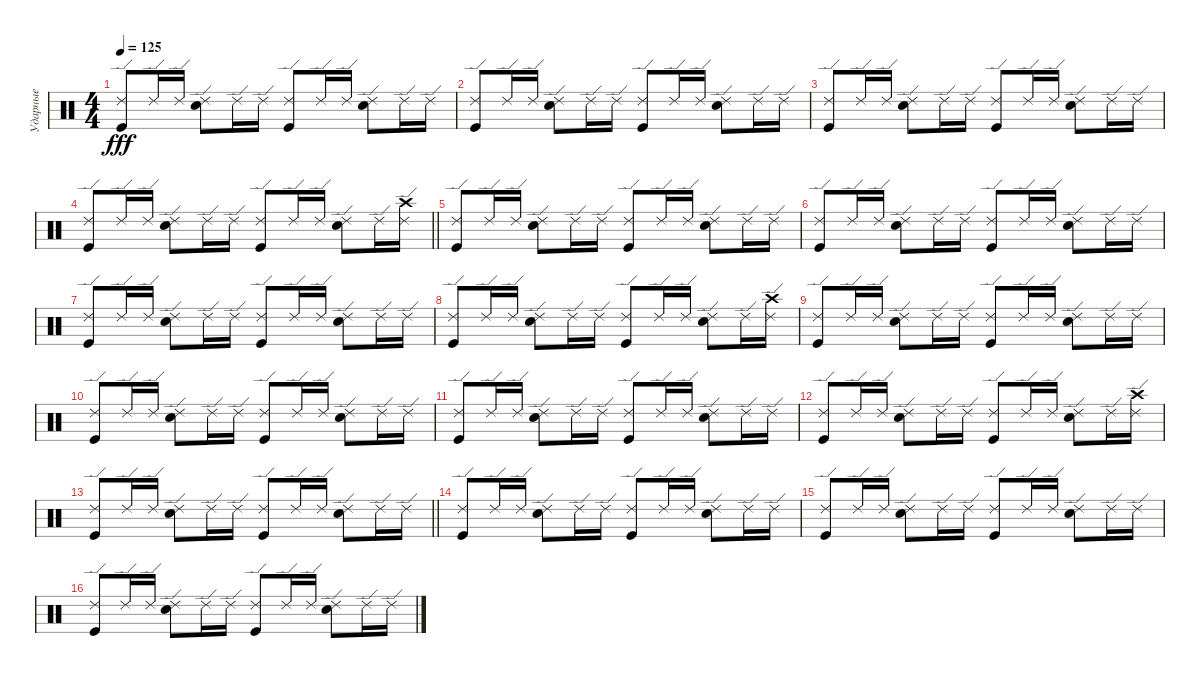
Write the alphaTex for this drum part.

\track ("Ударные" "Ударные") {instrument percussion}
\staff {score}
\articulation defaults
\ts (4 4)
\tempo 125
\clef neutral
\ks c
("Ride (edge) 2" "Kick (hit)").8{dy fff} "Ride (edge) 2".16 "Ride (edge) 2".16 ("Ride (edge) 2" "Snare (hit) 2").8 "Ride (edge) 2".16 "Ride (edge) 2".16 ("Ride (edge) 2" "Kick (hit)").8 "Ride (edge) 2".16 "Ride (edge) 2".16 ("Ride (edge) 2" "Snare (hit) 2").8 "Ride (edge) 2".16 "Ride (edge) 2".16 |
("Ride (edge) 2" "Kick (hit)").8 "Ride (edge) 2".16 "Ride (edge) 2".16 ("Ride (edge) 2" "Snare (hit) 2").8 "Ride (edge) 2".16 "Ride (edge) 2".16 ("Ride (edge) 2" "Kick (hit)").8 "Ride (edge) 2".16 "Ride (edge) 2".16 ("Ride (edge) 2" "Snare (hit) 2").8 "Ride (edge) 2".16 "Ride (edge) 2".16 |
("Ride (edge) 2" "Kick (hit)").8 "Ride (edge) 2".16 "Ride (edge) 2".16 ("Ride (edge) 2" "Snare (hit) 2").8 "Ride (edge) 2".16 "Ride (edge) 2".16 ("Ride (edge) 2" "Kick (hit)").8 "Ride (edge) 2".16 "Ride (edge) 2".16 ("Ride (edge) 2" "Snare (hit) 2").8 "Ride (edge) 2".16 "Ride (edge) 2".16 |
\barLineRight lightlight
("Ride (edge) 2" "Kick (hit)").8 "Ride (edge) 2".16 "Ride (edge) 2".16 ("Ride (edge) 2" "Snare (hit) 2").8 "Ride (edge) 2".16 "Ride (edge) 2".16 ("Ride (edge) 2" "Kick (hit)").8 "Ride (edge) 2".16 "Ride (edge) 2".16 ("Ride (edge) 2" "Snare (hit) 2").8 "Ride (edge) 2".16 ("Ride (edge) 2" "Crash high (hit)").16 |
("Ride (edge) 2" "Kick (hit)").8 "Ride (edge) 2".16 "Ride (edge) 2".16 ("Ride (edge) 2" "Snare (hit) 2").8 "Ride (edge) 2".16 "Ride (edge) 2".16 ("Ride (edge) 2" "Kick (hit)").8 "Ride (edge) 2".16 "Ride (edge) 2".16 ("Ride (edge) 2" "Snare (hit) 2").8 "Ride (edge) 2".16 "Ride (edge) 2".16 |
("Ride (edge) 2" "Kick (hit)").8 "Ride (edge) 2".16 "Ride (edge) 2".16 ("Ride (edge) 2" "Snare (hit) 2").8 "Ride (edge) 2".16 "Ride (edge) 2".16 ("Ride (edge) 2" "Kick (hit)").8 "Ride (edge) 2".16 "Ride (edge) 2".16 ("Ride (edge) 2" "Snare (hit) 2").8 "Ride (edge) 2".16 "Ride (edge) 2".16 |
("Ride (edge) 2" "Kick (hit)").8 "Ride (edge) 2".16 "Ride (edge) 2".16 ("Ride (edge) 2" "Snare (hit) 2").8 "Ride (edge) 2".16 "Ride (edge) 2".16 ("Ride (edge) 2" "Kick (hit)").8 "Ride (edge) 2".16 "Ride (edge) 2".16 ("Ride (edge) 2" "Snare (hit) 2").8 "Ride (edge) 2".16 "Ride (edge) 2".16 |
("Ride (edge) 2" "Kick (hit)").8 "Ride (edge) 2".16 "Ride (edge) 2".16 ("Ride (edge) 2" "Snare (hit) 2").8 "Ride (edge) 2".16 "Ride (edge) 2".16 ("Ride (edge) 2" "Kick (hit)").8 "Ride (edge) 2".16 "Ride (edge) 2".16 ("Ride (edge) 2" "Snare (hit) 2").8 "Ride (edge) 2".16 ("Ride (edge) 2" "Crash high (hit)").16 |
("Ride (edge) 2" "Kick (hit)").8 "Ride (edge) 2".16 "Ride (edge) 2".16 ("Ride (edge) 2" "Snare (hit) 2").8 "Ride (edge) 2".16 "Ride (edge) 2".16 ("Ride (edge) 2" "Kick (hit)").8 "Ride (edge) 2".16 "Ride (edge) 2".16 ("Ride (edge) 2" "Snare (hit) 2").8 "Ride (edge) 2".16 "Ride (edge) 2".16 |
("Ride (edge) 2" "Kick (hit)").8 "Ride (edge) 2".16 "Ride (edge) 2".16 ("Ride (edge) 2" "Snare (hit) 2").8 "Ride (edge) 2".16 "Ride (edge) 2".16 ("Ride (edge) 2" "Kick (hit)").8 "Ride (edge) 2".16 "Ride (edge) 2".16 ("Ride (edge) 2" "Snare (hit) 2").8 "Ride (edge) 2".16 "Ride (edge) 2".16 |
("Ride (edge) 2" "Kick (hit)").8 "Ride (edge) 2".16 "Ride (edge) 2".16 ("Ride (edge) 2" "Snare (hit) 2").8 "Ride (edge) 2".16 "Ride (edge) 2".16 ("Ride (edge) 2" "Kick (hit)").8 "Ride (edge) 2".16 "Ride (edge) 2".16 ("Ride (edge) 2" "Snare (hit) 2").8 "Ride (edge) 2".16 "Ride (edge) 2".16 |
("Ride (edge) 2" "Kick (hit)").8 "Ride (edge) 2".16 "Ride (edge) 2".16 ("Ride (edge) 2" "Snare (hit) 2").8 "Ride (edge) 2".16 "Ride (edge) 2".16 ("Ride (edge) 2" "Kick (hit)").8 "Ride (edge) 2".16 "Ride (edge) 2".16 ("Ride (edge) 2" "Snare (hit) 2").8 "Ride (edge) 2".16 ("Ride (edge) 2" "Crash high (hit)").16 |
\barLineRight lightlight
("Ride (edge) 2" "Kick (hit)").8 "Ride (edge) 2".16 "Ride (edge) 2".16 ("Ride (edge) 2" "Snare (hit) 2").8 "Ride (edge) 2".16 "Ride (edge) 2".16 ("Ride (edge) 2" "Kick (hit)").8 "Ride (edge) 2".16 "Ride (edge) 2".16 ("Ride (edge) 2" "Snare (hit) 2").8 "Ride (edge) 2".16 "Ride (edge) 2".16 |
("Ride (edge) 2" "Kick (hit)").8 "Ride (edge) 2".16 "Ride (edge) 2".16 ("Ride (edge) 2" "Snare (hit) 2").8 "Ride (edge) 2".16 "Ride (edge) 2".16 ("Ride (edge) 2" "Kick (hit)").8 "Ride (edge) 2".16 "Ride (edge) 2".16 ("Ride (edge) 2" "Snare (hit) 2").8 "Ride (edge) 2".16 "Ride (edge) 2".16 |
("Ride (edge) 2" "Kick (hit)").8 "Ride (edge) 2".16 "Ride (edge) 2".16 ("Ride (edge) 2" "Snare (hit) 2").8 "Ride (edge) 2".16 "Ride (edge) 2".16 ("Ride (edge) 2" "Kick (hit)").8 "Ride (edge) 2".16 "Ride (edge) 2".16 ("Ride (edge) 2" "Snare (hit) 2").8 "Ride (edge) 2".16 "Ride (edge) 2".16 |
("Ride (edge) 2" "Kick (hit)").8 "Ride (edge) 2".16 "Ride (edge) 2".16 ("Ride (edge) 2" "Snare (hit) 2").8 "Ride (edge) 2".16 "Ride (edge) 2".16 ("Ride (edge) 2" "Kick (hit)").8 "Ride (edge) 2".16 "Ride (edge) 2".16 ("Ride (edge) 2" "Snare (hit) 2").8 "Ride (edge) 2".16 "Ride (edge) 2".16
